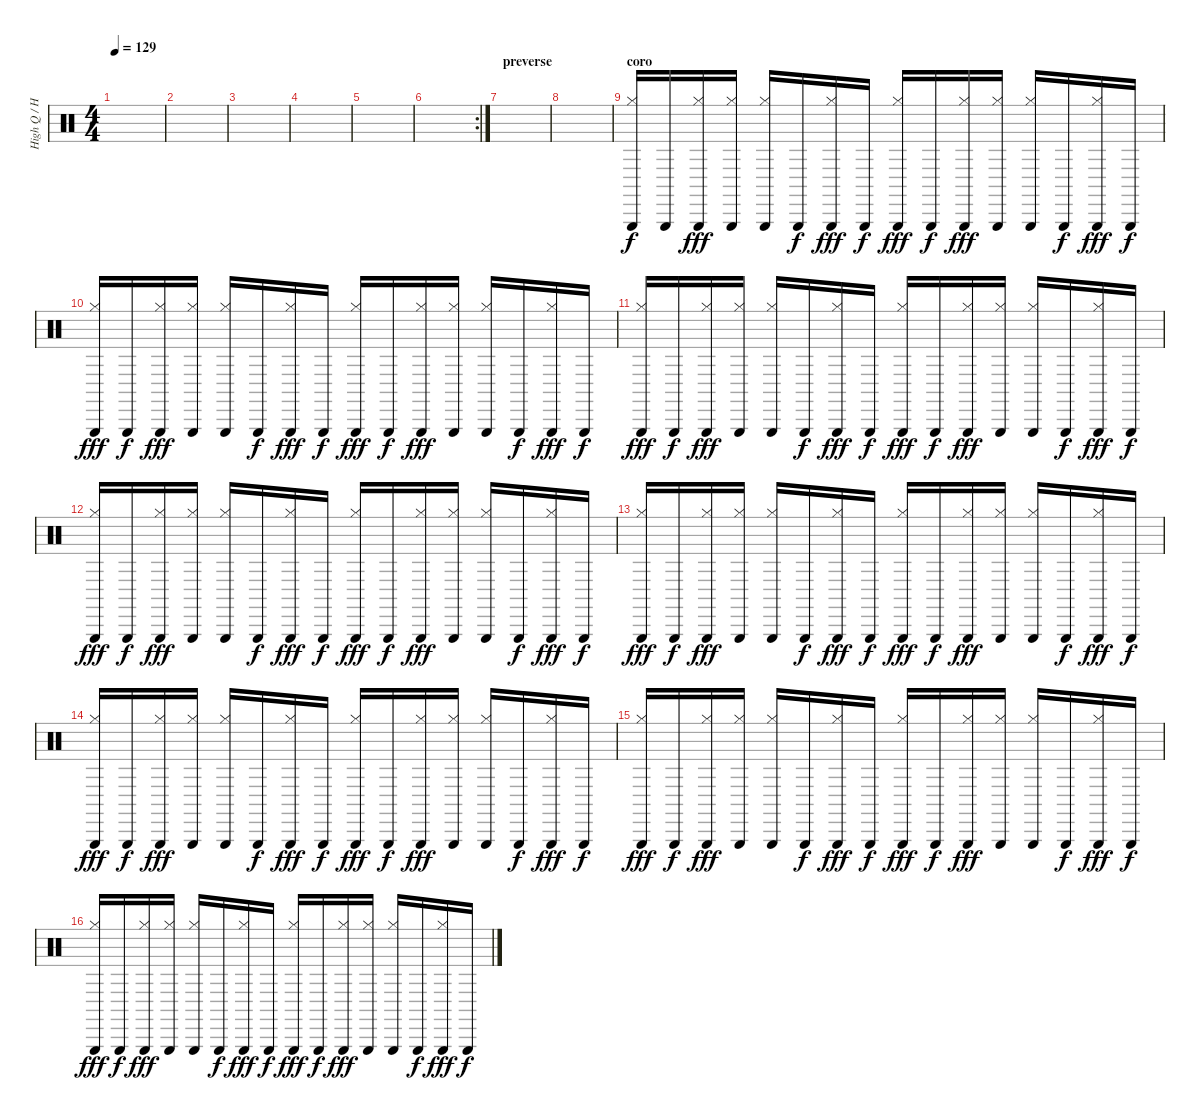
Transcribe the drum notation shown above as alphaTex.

\track ("High Q / Hats" "High Q / H") {instrument percussion}
\staff {score}
\articulation defaults
\ts (4 4)
\tempo 129
\clef neutral
\ks c
|
|
|
|
|
\rc 2
|
\section ("" "preverse")
|
|
\section ("" "coro")
("Triangle (hit)" "Hi-Hat (closed)").16 "Triangle (hit)".16{dy f} ("Triangle (hit)" "Hi-Hat (closed)").16{dy fff} ("Triangle (hit)" "Hi-Hat (closed)").16 ("Triangle (hit)" "Hi-Hat (closed)").16 "Triangle (hit)".16{dy f} ("Triangle (hit)" "Hi-Hat (closed)").16{dy fff} "Triangle (hit)".16{dy f} ("Triangle (hit)" "Hi-Hat (closed)").16{dy fff} "Triangle (hit)".16{dy f} ("Triangle (hit)" "Hi-Hat (closed)").16{dy fff} ("Triangle (hit)" "Hi-Hat (closed)").16 ("Triangle (hit)" "Hi-Hat (closed)").16 "Triangle (hit)".16{dy f} ("Triangle (hit)" "Hi-Hat (closed)").16{dy fff} "Triangle (hit)".16{dy f} |
("Triangle (hit)" "Hi-Hat (closed)").16{dy fff} "Triangle (hit)".16{dy f} ("Triangle (hit)" "Hi-Hat (closed)").16{dy fff} ("Triangle (hit)" "Hi-Hat (closed)").16 ("Triangle (hit)" "Hi-Hat (closed)").16 "Triangle (hit)".16{dy f} ("Triangle (hit)" "Hi-Hat (closed)").16{dy fff} "Triangle (hit)".16{dy f} ("Triangle (hit)" "Hi-Hat (closed)").16{dy fff} "Triangle (hit)".16{dy f} ("Triangle (hit)" "Hi-Hat (closed)").16{dy fff} ("Triangle (hit)" "Hi-Hat (closed)").16 ("Triangle (hit)" "Hi-Hat (closed)").16 "Triangle (hit)".16{dy f} ("Triangle (hit)" "Hi-Hat (closed)").16{dy fff} "Triangle (hit)".16{dy f} |
("Triangle (hit)" "Hi-Hat (closed)").16{dy fff} "Triangle (hit)".16{dy f} ("Triangle (hit)" "Hi-Hat (closed)").16{dy fff} ("Triangle (hit)" "Hi-Hat (closed)").16 ("Triangle (hit)" "Hi-Hat (closed)").16 "Triangle (hit)".16{dy f} ("Triangle (hit)" "Hi-Hat (closed)").16{dy fff} "Triangle (hit)".16{dy f} ("Triangle (hit)" "Hi-Hat (closed)").16{dy fff} "Triangle (hit)".16{dy f} ("Triangle (hit)" "Hi-Hat (closed)").16{dy fff} ("Triangle (hit)" "Hi-Hat (closed)").16 ("Triangle (hit)" "Hi-Hat (closed)").16 "Triangle (hit)".16{dy f} ("Triangle (hit)" "Hi-Hat (closed)").16{dy fff} "Triangle (hit)".16{dy f} |
("Triangle (hit)" "Hi-Hat (closed)").16{dy fff} "Triangle (hit)".16{dy f} ("Triangle (hit)" "Hi-Hat (closed)").16{dy fff} ("Triangle (hit)" "Hi-Hat (closed)").16 ("Triangle (hit)" "Hi-Hat (closed)").16 "Triangle (hit)".16{dy f} ("Triangle (hit)" "Hi-Hat (closed)").16{dy fff} "Triangle (hit)".16{dy f} ("Triangle (hit)" "Hi-Hat (closed)").16{dy fff} "Triangle (hit)".16{dy f} ("Triangle (hit)" "Hi-Hat (closed)").16{dy fff} ("Triangle (hit)" "Hi-Hat (closed)").16 ("Triangle (hit)" "Hi-Hat (closed)").16 "Triangle (hit)".16{dy f} ("Triangle (hit)" "Hi-Hat (closed)").16{dy fff} "Triangle (hit)".16{dy f} |
("Triangle (hit)" "Hi-Hat (closed)").16{dy fff} "Triangle (hit)".16{dy f} ("Triangle (hit)" "Hi-Hat (closed)").16{dy fff} ("Triangle (hit)" "Hi-Hat (closed)").16 ("Triangle (hit)" "Hi-Hat (closed)").16 "Triangle (hit)".16{dy f} ("Triangle (hit)" "Hi-Hat (closed)").16{dy fff} "Triangle (hit)".16{dy f} ("Triangle (hit)" "Hi-Hat (closed)").16{dy fff} "Triangle (hit)".16{dy f} ("Triangle (hit)" "Hi-Hat (closed)").16{dy fff} ("Triangle (hit)" "Hi-Hat (closed)").16 ("Triangle (hit)" "Hi-Hat (closed)").16 "Triangle (hit)".16{dy f} ("Triangle (hit)" "Hi-Hat (closed)").16{dy fff} "Triangle (hit)".16{dy f} |
("Triangle (hit)" "Hi-Hat (closed)").16{dy fff} "Triangle (hit)".16{dy f} ("Triangle (hit)" "Hi-Hat (closed)").16{dy fff} ("Triangle (hit)" "Hi-Hat (closed)").16 ("Triangle (hit)" "Hi-Hat (closed)").16 "Triangle (hit)".16{dy f} ("Triangle (hit)" "Hi-Hat (closed)").16{dy fff} "Triangle (hit)".16{dy f} ("Triangle (hit)" "Hi-Hat (closed)").16{dy fff} "Triangle (hit)".16{dy f} ("Triangle (hit)" "Hi-Hat (closed)").16{dy fff} ("Triangle (hit)" "Hi-Hat (closed)").16 ("Triangle (hit)" "Hi-Hat (closed)").16 "Triangle (hit)".16{dy f} ("Triangle (hit)" "Hi-Hat (closed)").16{dy fff} "Triangle (hit)".16{dy f} |
("Triangle (hit)" "Hi-Hat (closed)").16{dy fff} "Triangle (hit)".16{dy f} ("Triangle (hit)" "Hi-Hat (closed)").16{dy fff} ("Triangle (hit)" "Hi-Hat (closed)").16 ("Triangle (hit)" "Hi-Hat (closed)").16 "Triangle (hit)".16{dy f} ("Triangle (hit)" "Hi-Hat (closed)").16{dy fff} "Triangle (hit)".16{dy f} ("Triangle (hit)" "Hi-Hat (closed)").16{dy fff} "Triangle (hit)".16{dy f} ("Triangle (hit)" "Hi-Hat (closed)").16{dy fff} ("Triangle (hit)" "Hi-Hat (closed)").16 ("Triangle (hit)" "Hi-Hat (closed)").16 "Triangle (hit)".16{dy f} ("Triangle (hit)" "Hi-Hat (closed)").16{dy fff} "Triangle (hit)".16{dy f} |
("Triangle (hit)" "Hi-Hat (closed)").16{dy fff} "Triangle (hit)".16{dy f} ("Triangle (hit)" "Hi-Hat (closed)").16{dy fff} ("Triangle (hit)" "Hi-Hat (closed)").16 ("Triangle (hit)" "Hi-Hat (closed)").16 "Triangle (hit)".16{dy f} ("Triangle (hit)" "Hi-Hat (closed)").16{dy fff} "Triangle (hit)".16{dy f} ("Triangle (hit)" "Hi-Hat (closed)").16{dy fff} "Triangle (hit)".16{dy f} ("Triangle (hit)" "Hi-Hat (closed)").16{dy fff} ("Triangle (hit)" "Hi-Hat (closed)").16 ("Triangle (hit)" "Hi-Hat (closed)").16 "Triangle (hit)".16{dy f} ("Triangle (hit)" "Hi-Hat (closed)").16{dy fff} "Triangle (hit)".16{dy f}
